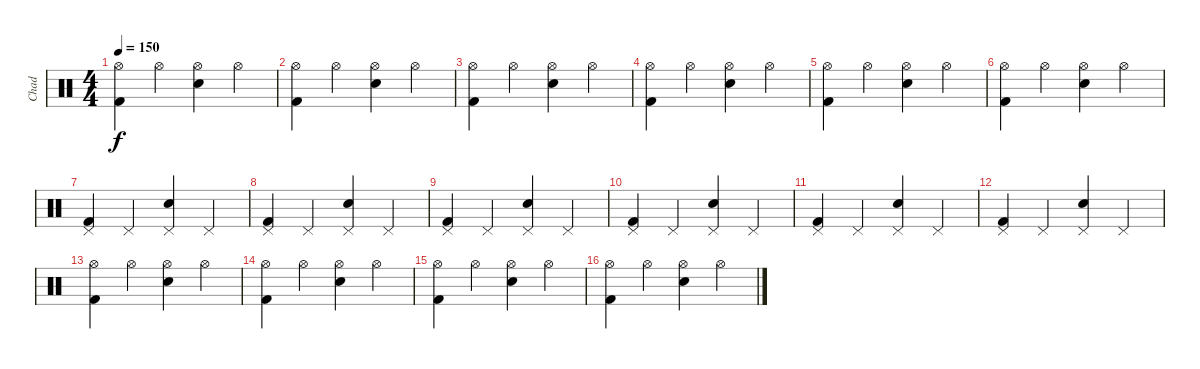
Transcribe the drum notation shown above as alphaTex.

\track ("Chad" "Chad") {instrument percussion}
\staff {score}
\articulation defaults
\ts (4 4)
\tempo 150
\clef neutral
\ks c
("Hi-Hat (open)" "Kick (hit) 2").4{dy f} "Hi-Hat (open)".4 ("Hi-Hat (open)" "Snare (hit) 2").4 "Hi-Hat (open)".4 |
("Hi-Hat (open)" "Kick (hit) 2").4 "Hi-Hat (open)".4 ("Hi-Hat (open)" "Snare (hit) 2").4 "Hi-Hat (open)".4 |
("Hi-Hat (open)" "Kick (hit) 2").4 "Hi-Hat (open)".4 ("Hi-Hat (open)" "Snare (hit) 2").4 "Hi-Hat (open)".4 |
("Hi-Hat (open)" "Kick (hit) 2").4 "Hi-Hat (open)".4 ("Hi-Hat (open)" "Snare (hit) 2").4 "Hi-Hat (open)".4 |
("Hi-Hat (open)" "Kick (hit) 2").4 "Hi-Hat (open)".4 ("Hi-Hat (open)" "Snare (hit) 2").4 "Hi-Hat (open)".4 |
("Hi-Hat (open)" "Kick (hit) 2").4 "Hi-Hat (open)".4 ("Hi-Hat (open)" "Snare (hit) 2").4 "Hi-Hat (open)".4 |
("Pedal Hi-Hat (hit)" "Kick (hit) 2").4 "Pedal Hi-Hat (hit)".4 ("Pedal Hi-Hat (hit)" "Snare (hit) 2").4 "Pedal Hi-Hat (hit)".4 |
("Pedal Hi-Hat (hit)" "Kick (hit) 2").4 "Pedal Hi-Hat (hit)".4 ("Pedal Hi-Hat (hit)" "Snare (hit) 2").4 "Pedal Hi-Hat (hit)".4 |
("Pedal Hi-Hat (hit)" "Kick (hit) 2").4 "Pedal Hi-Hat (hit)".4 ("Pedal Hi-Hat (hit)" "Snare (hit) 2").4 "Pedal Hi-Hat (hit)".4 |
("Pedal Hi-Hat (hit)" "Kick (hit) 2").4 "Pedal Hi-Hat (hit)".4 ("Pedal Hi-Hat (hit)" "Snare (hit) 2").4 "Pedal Hi-Hat (hit)".4 |
("Pedal Hi-Hat (hit)" "Kick (hit) 2").4 "Pedal Hi-Hat (hit)".4 ("Pedal Hi-Hat (hit)" "Snare (hit) 2").4 "Pedal Hi-Hat (hit)".4 |
("Pedal Hi-Hat (hit)" "Kick (hit) 2").4 "Pedal Hi-Hat (hit)".4 ("Pedal Hi-Hat (hit)" "Snare (hit) 2").4 "Pedal Hi-Hat (hit)".4 |
("Hi-Hat (open)" "Kick (hit) 2").4 "Hi-Hat (open)".4 ("Hi-Hat (open)" "Snare (hit) 2").4 "Hi-Hat (open)".4 |
("Hi-Hat (open)" "Kick (hit) 2").4 "Hi-Hat (open)".4 ("Hi-Hat (open)" "Snare (hit) 2").4 "Hi-Hat (open)".4 |
("Hi-Hat (open)" "Kick (hit) 2").4 "Hi-Hat (open)".4 ("Hi-Hat (open)" "Snare (hit) 2").4 "Hi-Hat (open)".4 |
("Hi-Hat (open)" "Kick (hit) 2").4 "Hi-Hat (open)".4 ("Hi-Hat (open)" "Snare (hit) 2").4 "Hi-Hat (open)".4
